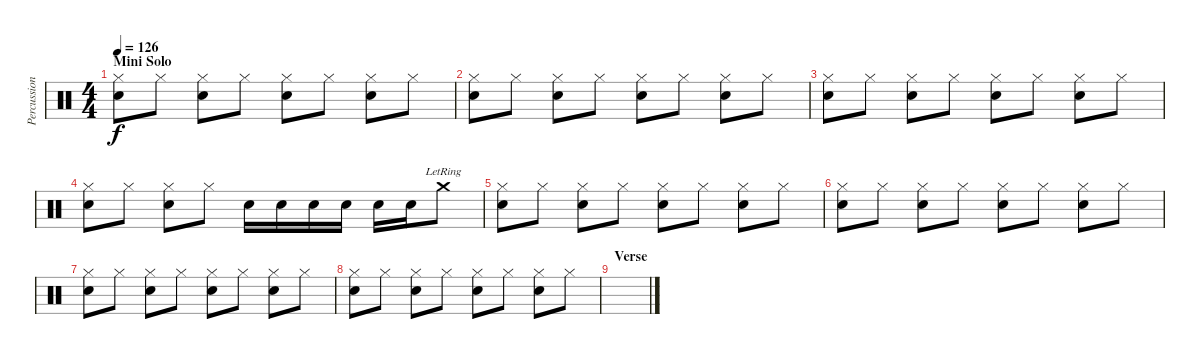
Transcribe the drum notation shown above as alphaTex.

\track ("Percussion" "Percussion") {instrument percussion}
\staff {score}
\articulation defaults
\ts (4 4)
\section ("" "Mini Solo")
\tempo 126
\clef neutral
\ks c
("Hi-Hat (closed)" "Snare (hit) 2").8{dy f} "Hi-Hat (closed)".8 ("Hi-Hat (closed)" "Snare (hit) 2").8 "Hi-Hat (closed)".8 ("Hi-Hat (closed)" "Snare (hit) 2").8 "Hi-Hat (closed)".8 ("Hi-Hat (closed)" "Snare (hit) 2").8 "Hi-Hat (closed)".8 |
("Hi-Hat (closed)" "Snare (hit) 2").8 "Hi-Hat (closed)".8 ("Hi-Hat (closed)" "Snare (hit) 2").8 "Hi-Hat (closed)".8 ("Hi-Hat (closed)" "Snare (hit) 2").8 "Hi-Hat (closed)".8 ("Hi-Hat (closed)" "Snare (hit) 2").8 "Hi-Hat (closed)".8 |
("Hi-Hat (closed)" "Snare (hit) 2").8 "Hi-Hat (closed)".8 ("Hi-Hat (closed)" "Snare (hit) 2").8 "Hi-Hat (closed)".8 ("Hi-Hat (closed)" "Snare (hit) 2").8 "Hi-Hat (closed)".8 ("Hi-Hat (closed)" "Snare (hit) 2").8 "Hi-Hat (closed)".8 |
("Hi-Hat (closed)" "Snare (hit) 2").8 "Hi-Hat (closed)".8 ("Hi-Hat (closed)" "Snare (hit) 2").8 "Hi-Hat (closed)".8 "Snare (hit) 2".16 "Snare (hit) 2".16 "Snare (hit) 2".16 "Snare (hit) 2".16 "Snare (hit) 2".16 "Snare (hit) 2".16 "Crash medium (hit)"{lr}.8 |
("Hi-Hat (closed)" "Snare (hit) 2").8 "Hi-Hat (closed)".8 ("Hi-Hat (closed)" "Snare (hit) 2").8 "Hi-Hat (closed)".8 ("Hi-Hat (closed)" "Snare (hit) 2").8 "Hi-Hat (closed)".8 ("Hi-Hat (closed)" "Snare (hit) 2").8 "Hi-Hat (closed)".8 |
("Hi-Hat (closed)" "Snare (hit) 2").8 "Hi-Hat (closed)".8 ("Hi-Hat (closed)" "Snare (hit) 2").8 "Hi-Hat (closed)".8 ("Hi-Hat (closed)" "Snare (hit) 2").8 "Hi-Hat (closed)".8 ("Hi-Hat (closed)" "Snare (hit) 2").8 "Hi-Hat (closed)".8 |
("Hi-Hat (closed)" "Snare (hit) 2").8 "Hi-Hat (closed)".8 ("Hi-Hat (closed)" "Snare (hit) 2").8 "Hi-Hat (closed)".8 ("Hi-Hat (closed)" "Snare (hit) 2").8 "Hi-Hat (closed)".8 ("Hi-Hat (closed)" "Snare (hit) 2").8 "Hi-Hat (closed)".8 |
("Hi-Hat (closed)" "Snare (hit) 2").8 "Hi-Hat (closed)".8 ("Hi-Hat (closed)" "Snare (hit) 2").8 "Hi-Hat (closed)".8 ("Hi-Hat (closed)" "Snare (hit) 2").8 "Hi-Hat (closed)".8 ("Hi-Hat (closed)" "Snare (hit) 2").8 "Hi-Hat (closed)".8 |
\section ("" "Verse")
